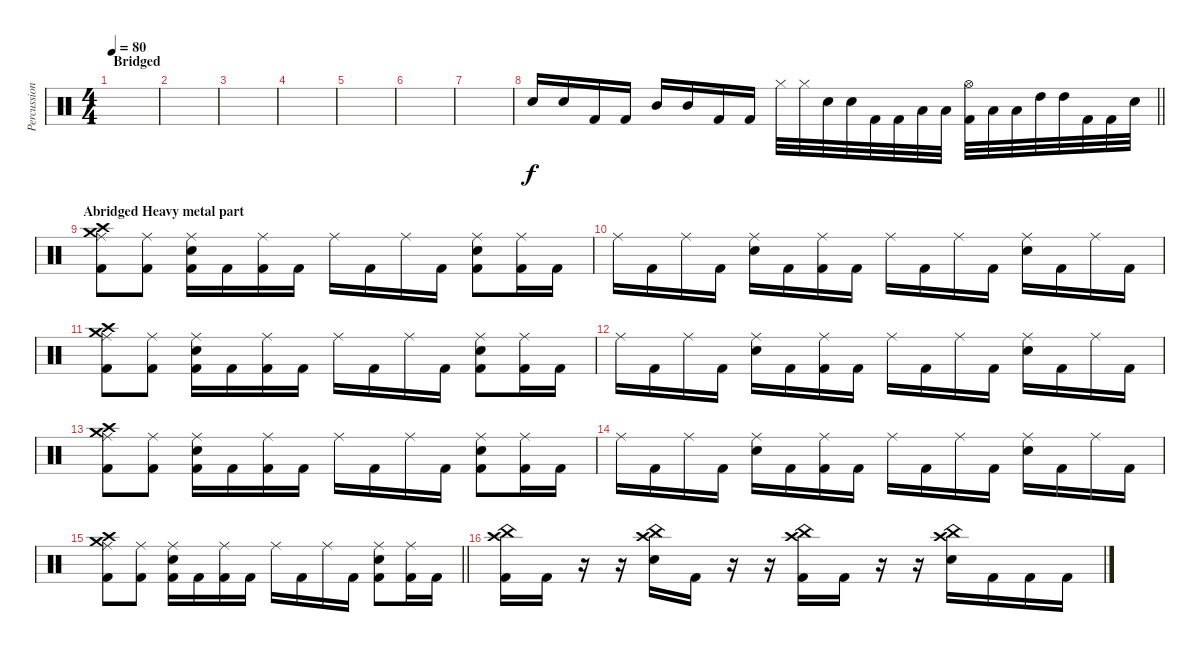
\track ("Percussion" "Percussion") {instrument percussion}
\staff {score}
\articulation defaults
\ts (4 4)
\section ("" "Bridged")
\tempo 80
\clef neutral
\ks c
|
|
|
|
|
|
|
\barLineRight lightlight "Snare (hit) 2".16 "Snare (hit) 2".16 "Kick (hit) 2".16 "Kick (hit) 2".16 "Mid Tom (hit)".16 "Mid Tom (hit)".16 "Kick (hit) 2".16 "Kick (hit) 2".16 "Hi-Hat (closed)".32 "Hi-Hat (closed)".32 "Electric Snare (hit)".32 "Electric Snare (hit)".32 "Kick (hit) 2".32 "Kick (hit) 2".32 "Low Tom (hit)".32 "Low Tom (hit)".32
("Hi-Hat (open)" "Kick (hit) 2").32 "Low Floor Tom (hit)".32 "Low Floor Tom (hit)".32 "High Tom (hit)".32 "High Tom (hit)".32 "Kick (hit) 2".32 "Kick (hit) 2".32 "Snare (hit) 2".32 |
\section ("" "Abridged Heavy metal part")
("Kick (hit) 2" "Ride (middle)" "Crash high (hit)" "Crash medium (hit)").8 ("Kick (hit) 2" "Ride (middle)").8 ("Kick (hit) 2" "Ride (middle)" "Snare (hit) 2").16 "Kick (hit) 2".16 ("Kick (hit) 2" "Ride (middle)").16 "Kick (hit) 2".16 "Ride (middle)".16 "Kick (hit) 2".16 "Ride (middle)".16 "Kick (hit) 2".16 ("Kick (hit) 2" "Ride (middle)" "Snare (hit) 2").8 ("Kick (hit) 2" "Ride (middle)").16 "Kick (hit) 2".16 |
"Ride (middle)".16 "Kick (hit) 2".16 "Ride (middle)".16 "Kick (hit) 2".16 ("Ride (middle)" "Snare (hit) 2").16 "Kick (hit) 2".16 ("Ride (middle)" "Kick (hit) 2").16 "Kick (hit) 2".16 "Ride (middle)".16 "Kick (hit) 2".16 "Ride (middle)".16 "Kick (hit) 2".16 ("Ride (middle)" "Snare (hit) 2").16 "Kick (hit) 2".16 "Ride (middle)".16 "Kick (hit) 2".16 |
("Kick (hit) 2" "Ride (middle)" "Crash high (hit)" "Crash medium (hit)").8 ("Kick (hit) 2" "Ride (middle)").8 ("Kick (hit) 2" "Ride (middle)" "Snare (hit) 2").16 "Kick (hit) 2".16 ("Kick (hit) 2" "Ride (middle)").16 "Kick (hit) 2".16 "Ride (middle)".16 "Kick (hit) 2".16 "Ride (middle)".16 "Kick (hit) 2".16 ("Kick (hit) 2" "Ride (middle)" "Snare (hit) 2").8 ("Kick (hit) 2" "Ride (middle)").16 "Kick (hit) 2".16 |
"Ride (middle)".16 "Kick (hit) 2".16 "Ride (middle)".16 "Kick (hit) 2".16 ("Ride (middle)" "Snare (hit) 2").16 "Kick (hit) 2".16 ("Ride (middle)" "Kick (hit) 2").16 "Kick (hit) 2".16 "Ride (middle)".16 "Kick (hit) 2".16 "Ride (middle)".16 "Kick (hit) 2".16 ("Ride (middle)" "Snare (hit) 2").16 "Kick (hit) 2".16 "Ride (middle)".16 "Kick (hit) 2".16 |
("Kick (hit) 2" "Ride (middle)" "Crash high (hit)" "Crash medium (hit)").8 ("Kick (hit) 2" "Ride (middle)").8 ("Kick (hit) 2" "Ride (middle)" "Snare (hit) 2").16 "Kick (hit) 2".16 ("Kick (hit) 2" "Ride (middle)").16 "Kick (hit) 2".16 "Ride (middle)".16 "Kick (hit) 2".16 "Ride (middle)".16 "Kick (hit) 2".16 ("Kick (hit) 2" "Ride (middle)" "Snare (hit) 2").8 ("Kick (hit) 2" "Ride (middle)").16 "Kick (hit) 2".16 |
"Ride (middle)".16 "Kick (hit) 2".16 "Ride (middle)".16 "Kick (hit) 2".16 ("Ride (middle)" "Snare (hit) 2").16 "Kick (hit) 2".16 ("Ride (middle)" "Kick (hit) 2").16 "Kick (hit) 2".16 "Ride (middle)".16 "Kick (hit) 2".16 "Ride (middle)".16 "Kick (hit) 2".16 ("Ride (middle)" "Snare (hit) 2").16 "Kick (hit) 2".16 "Ride (middle)".16 "Kick (hit) 2".16 |
\barLineRight lightlight
("Kick (hit) 2" "Ride (middle)" "Crash high (hit)" "Crash medium (hit)").8 ("Kick (hit) 2" "Ride (middle)").8 ("Kick (hit) 2" "Ride (middle)" "Snare (hit) 2").16 "Kick (hit) 2".16 ("Kick (hit) 2" "Ride (middle)").16 "Kick (hit) 2".16 "Ride (middle)".16 "Kick (hit) 2".16 "Ride (middle)".16 "Kick (hit) 2".16 ("Kick (hit) 2" "Ride (middle)" "Snare (hit) 2").8 ("Kick (hit) 2" "Ride (middle)").16 "Kick (hit) 2".16 |
("Crash high (hit)" "Kick (hit) 2" "China (hit)").16 "Kick (hit) 2".16 r.16 r.16 ("Snare (hit) 2" "Crash high (hit)" "China (hit)").16 "Kick (hit) 2".16 r.16 r.16 ("Kick (hit) 2" "Crash high (hit)" "China (hit)").16 "Kick (hit) 2".16 r.16 r.16 ("Crash high (hit)" "Snare (hit) 2" "China (hit)").16 "Kick (hit) 2".16 "Kick (hit) 2".16 "Kick (hit) 2".16
